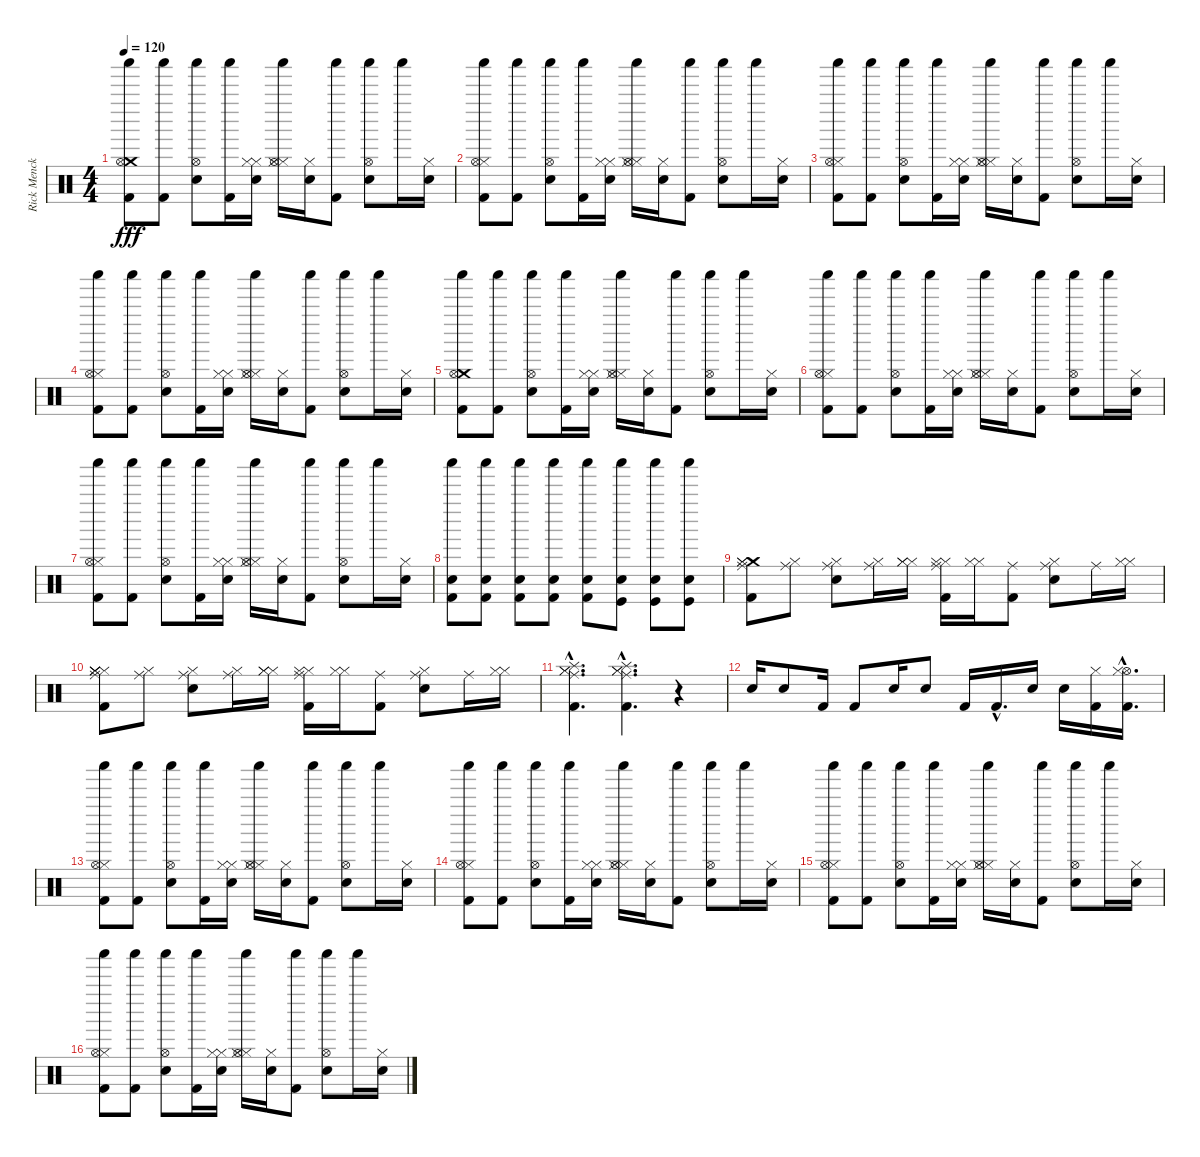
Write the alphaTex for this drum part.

\track ("Rick Menck" "Rick Menck") {instrument percussion}
\staff {score}
\articulation defaults
\ts (4 4)
\tempo 120
\clef neutral
\ks c
("Shaker (hit)" "Kick (hit) 2" "Crash medium (hit)" "Hi-Hat (open)").8{dy fff} ("Shaker (hit)" "Kick (hit) 2").8 ("Shaker (hit)" "Snare (hit) 2" "Hi-Hat (open)").8 ("Shaker (hit)" "Kick (hit) 2").16 ("Hi-Hat (closed)" "Snare (hit) 2" "Hi-Hat (closed)").16 ("Shaker (hit)" "Hi-Hat (closed)" "Hi-Hat (open)" "Hi-Hat (closed)").16 ("Hi-Hat (closed)" "Snare (hit) 2").16 ("Shaker (hit)" "Kick (hit) 2").8 ("Shaker (hit)" "Snare (hit) 2" "Hi-Hat (open)").8 "Shaker (hit)".16 ("Hi-Hat (closed)" "Snare (hit) 2").16 |
("Shaker (hit)" "Kick (hit) 2" "Hi-Hat (closed)" "Hi-Hat (open)").8 ("Shaker (hit)" "Kick (hit) 2").8 ("Shaker (hit)" "Snare (hit) 2" "Hi-Hat (open)").8 ("Shaker (hit)" "Kick (hit) 2").16 ("Hi-Hat (closed)" "Snare (hit) 2" "Hi-Hat (closed)").16 ("Shaker (hit)" "Hi-Hat (closed)" "Hi-Hat (open)" "Hi-Hat (closed)").16 ("Hi-Hat (closed)" "Snare (hit) 2").16 ("Shaker (hit)" "Kick (hit) 2").8 ("Shaker (hit)" "Snare (hit) 2" "Hi-Hat (open)").8 "Shaker (hit)".16 ("Hi-Hat (closed)" "Snare (hit) 2").16 |
("Shaker (hit)" "Kick (hit) 2" "Hi-Hat (closed)" "Hi-Hat (open)").8 ("Shaker (hit)" "Kick (hit) 2").8 ("Shaker (hit)" "Snare (hit) 2" "Hi-Hat (open)").8 ("Shaker (hit)" "Kick (hit) 2").16 ("Hi-Hat (closed)" "Snare (hit) 2" "Hi-Hat (closed)").16 ("Shaker (hit)" "Hi-Hat (closed)" "Hi-Hat (open)" "Hi-Hat (closed)").16 ("Hi-Hat (closed)" "Snare (hit) 2").16 ("Shaker (hit)" "Kick (hit) 2").8 ("Shaker (hit)" "Snare (hit) 2" "Hi-Hat (open)").8 "Shaker (hit)".16 ("Hi-Hat (closed)" "Snare (hit) 2").16 |
("Shaker (hit)" "Kick (hit) 2" "Hi-Hat (closed)" "Hi-Hat (open)").8 ("Shaker (hit)" "Kick (hit) 2").8 ("Shaker (hit)" "Snare (hit) 2" "Hi-Hat (open)").8 ("Shaker (hit)" "Kick (hit) 2").16 ("Hi-Hat (closed)" "Snare (hit) 2" "Hi-Hat (closed)").16 ("Shaker (hit)" "Hi-Hat (closed)" "Hi-Hat (open)" "Hi-Hat (closed)").16 ("Hi-Hat (closed)" "Snare (hit) 2").16 ("Shaker (hit)" "Kick (hit) 2").8 ("Shaker (hit)" "Snare (hit) 2" "Hi-Hat (open)").8 "Shaker (hit)".16 ("Hi-Hat (closed)" "Snare (hit) 2").16 |
("Shaker (hit)" "Kick (hit) 2" "Crash medium (hit)" "Hi-Hat (open)").8 ("Shaker (hit)" "Kick (hit) 2").8 ("Shaker (hit)" "Snare (hit) 2" "Hi-Hat (open)").8 ("Shaker (hit)" "Kick (hit) 2").16 ("Hi-Hat (closed)" "Snare (hit) 2" "Hi-Hat (closed)").16 ("Shaker (hit)" "Hi-Hat (closed)" "Hi-Hat (open)" "Hi-Hat (closed)").16 ("Hi-Hat (closed)" "Snare (hit) 2").16 ("Shaker (hit)" "Kick (hit) 2").8 ("Shaker (hit)" "Snare (hit) 2" "Hi-Hat (open)").8 "Shaker (hit)".16 ("Hi-Hat (closed)" "Snare (hit) 2").16 |
("Shaker (hit)" "Kick (hit) 2" "Hi-Hat (closed)" "Hi-Hat (open)").8 ("Shaker (hit)" "Kick (hit) 2").8 ("Shaker (hit)" "Snare (hit) 2" "Hi-Hat (open)").8 ("Shaker (hit)" "Kick (hit) 2").16 ("Hi-Hat (closed)" "Snare (hit) 2" "Hi-Hat (closed)").16 ("Shaker (hit)" "Hi-Hat (closed)" "Hi-Hat (open)" "Hi-Hat (closed)").16 ("Hi-Hat (closed)" "Snare (hit) 2").16 ("Shaker (hit)" "Kick (hit) 2").8 ("Shaker (hit)" "Snare (hit) 2" "Hi-Hat (open)").8 "Shaker (hit)".16 ("Hi-Hat (closed)" "Snare (hit) 2").16 |
("Shaker (hit)" "Kick (hit) 2" "Hi-Hat (closed)" "Hi-Hat (open)").8 ("Shaker (hit)" "Kick (hit) 2").8 ("Shaker (hit)" "Snare (hit) 2" "Hi-Hat (open)").8 ("Shaker (hit)" "Kick (hit) 2").16 ("Hi-Hat (closed)" "Snare (hit) 2" "Hi-Hat (closed)").16 ("Shaker (hit)" "Hi-Hat (closed)" "Hi-Hat (open)" "Hi-Hat (closed)").16 ("Hi-Hat (closed)" "Snare (hit) 2").16 ("Shaker (hit)" "Kick (hit) 2").8 ("Shaker (hit)" "Snare (hit) 2" "Hi-Hat (open)").8 "Shaker (hit)".16 ("Hi-Hat (closed)" "Snare (hit) 2").16 |
("Shaker (hit)" "Kick (hit) 2" "Snare (hit) 2").8 ("Shaker (hit)" "Kick (hit) 2" "Snare (hit) 2").8 ("Shaker (hit)" "Kick (hit) 2" "Snare (hit) 2").8 ("Shaker (hit)" "Kick (hit) 2" "Snare (hit) 2").8 ("Shaker (hit)" "Kick (hit) 2" "Snare (hit) 2").8 ("Shaker (hit)" "Kick (hit)" "Snare (hit) 2").8 ("Shaker (hit)" "Kick (hit)" "Snare (hit) 2").8 ("Shaker (hit)" "Kick (hit)" "Snare (hit) 2").8 |
("Ride (middle)" "Crash medium (hit)" "Kick (hit) 2" "Hi-Hat (closed)" "Hi-Hat (closed)").8 ("Ride (middle)" "Hi-Hat (closed)").8 ("Ride (middle)" "Snare (hit) 2" "Hi-Hat (closed)").8 ("Ride (middle)" "Hi-Hat (closed)").16 ("Hi-Hat (closed)" "Hi-Hat (closed)" "Hi-Hat (closed)").16 ("Ride (middle)" "Kick (hit) 2" "Hi-Hat (closed)" "Hi-Hat (closed)").16 ("Hi-Hat (closed)" "Hi-Hat (closed)").16 ("Ride (middle)" "Kick (hit) 2").8 ("Ride (middle)" "Snare (hit) 2" "Hi-Hat (closed)").8 "Ride (middle)".16 ("Hi-Hat (closed)" "Hi-Hat (closed)").16 |
("Ride (middle)" "Hi-Hat (closed)" "Hi-Hat (closed)" "Kick (hit) 2" "Hi-Hat (closed)" "Hi-Hat (closed)").8 ("Ride (middle)" "Hi-Hat (closed)").8 ("Ride (middle)" "Snare (hit) 2" "Hi-Hat (closed)").8 ("Ride (middle)" "Hi-Hat (closed)").16 ("Hi-Hat (closed)" "Hi-Hat (closed)" "Hi-Hat (closed)").16 ("Ride (middle)" "Kick (hit) 2" "Hi-Hat (closed)" "Hi-Hat (closed)").16 ("Hi-Hat (closed)" "Hi-Hat (closed)").16 ("Ride (middle)" "Kick (hit) 2").8 ("Ride (middle)" "Snare (hit) 2" "Hi-Hat (closed)").8 "Ride (middle)".16 ("Hi-Hat (closed)" "Hi-Hat (closed)").16 |
("Ride (middle)"{hac} "Hi-Hat (closed)"{hac} "Kick (hit) 2"{hac} "Splash (hit)"{hac} "Hi-Hat (closed)"{hac}).4{d} ("Ride (middle)"{hac} "Hi-Hat (closed)"{hac} "Kick (hit) 2"{hac} "Splash (hit)"{hac} "Hi-Hat (closed)"{hac}).4{d} r.4 |
"Snare (hit) 2".16 "Snare (hit) 2".8 "Kick (hit) 2".16 "Kick (hit) 2".8 "Snare (hit) 2".16 "Snare (hit) 2".8 "Kick (hit) 2".16 "Kick (hit) 2"{hac}.16{d} "Snare (hit) 2".16 "Snare (hit) 2".16 ("Kick (hit) 2" "Hi-Hat (closed)").16 ("Kick (hit) 2"{hac} "Hi-Hat (open)"{hac} "Hi-Hat (closed)"{hac}).16{d} |
("Shaker (hit)" "Kick (hit) 2" "Hi-Hat (closed)" "Hi-Hat (open)").8 ("Shaker (hit)" "Kick (hit) 2").8 ("Shaker (hit)" "Snare (hit) 2" "Hi-Hat (open)").8 ("Shaker (hit)" "Kick (hit) 2").16 ("Hi-Hat (closed)" "Snare (hit) 2" "Hi-Hat (closed)").16 ("Shaker (hit)" "Hi-Hat (closed)" "Hi-Hat (open)" "Hi-Hat (closed)").16 ("Hi-Hat (closed)" "Snare (hit) 2").16 ("Shaker (hit)" "Kick (hit) 2").8 ("Shaker (hit)" "Snare (hit) 2" "Hi-Hat (open)").8 "Shaker (hit)".16 ("Hi-Hat (closed)" "Snare (hit) 2").16 |
("Shaker (hit)" "Kick (hit) 2" "Hi-Hat (closed)" "Hi-Hat (open)").8 ("Shaker (hit)" "Kick (hit) 2").8 ("Shaker (hit)" "Snare (hit) 2" "Hi-Hat (open)").8 ("Shaker (hit)" "Kick (hit) 2").16 ("Hi-Hat (closed)" "Snare (hit) 2" "Hi-Hat (closed)").16 ("Shaker (hit)" "Hi-Hat (closed)" "Hi-Hat (open)" "Hi-Hat (closed)").16 ("Hi-Hat (closed)" "Snare (hit) 2").16 ("Shaker (hit)" "Kick (hit) 2").8 ("Shaker (hit)" "Snare (hit) 2" "Hi-Hat (open)").8 "Shaker (hit)".16 ("Hi-Hat (closed)" "Snare (hit) 2").16 |
("Shaker (hit)" "Kick (hit) 2" "Hi-Hat (closed)" "Hi-Hat (open)").8 ("Shaker (hit)" "Kick (hit) 2").8 ("Shaker (hit)" "Snare (hit) 2" "Hi-Hat (open)").8 ("Shaker (hit)" "Kick (hit) 2").16 ("Hi-Hat (closed)" "Snare (hit) 2" "Hi-Hat (closed)").16 ("Shaker (hit)" "Hi-Hat (closed)" "Hi-Hat (open)" "Hi-Hat (closed)").16 ("Hi-Hat (closed)" "Snare (hit) 2").16 ("Shaker (hit)" "Kick (hit) 2").8 ("Shaker (hit)" "Snare (hit) 2" "Hi-Hat (open)").8 "Shaker (hit)".16 ("Hi-Hat (closed)" "Snare (hit) 2").16 |
("Shaker (hit)" "Kick (hit) 2" "Hi-Hat (closed)" "Hi-Hat (open)").8 ("Shaker (hit)" "Kick (hit) 2").8 ("Shaker (hit)" "Snare (hit) 2" "Hi-Hat (open)").8 ("Shaker (hit)" "Kick (hit) 2").16 ("Hi-Hat (closed)" "Snare (hit) 2" "Hi-Hat (closed)").16 ("Shaker (hit)" "Hi-Hat (closed)" "Hi-Hat (open)" "Hi-Hat (closed)").16 ("Hi-Hat (closed)" "Snare (hit) 2").16 ("Shaker (hit)" "Kick (hit) 2").8 ("Shaker (hit)" "Snare (hit) 2" "Hi-Hat (open)").8 "Shaker (hit)".16 ("Hi-Hat (closed)" "Snare (hit) 2").16
